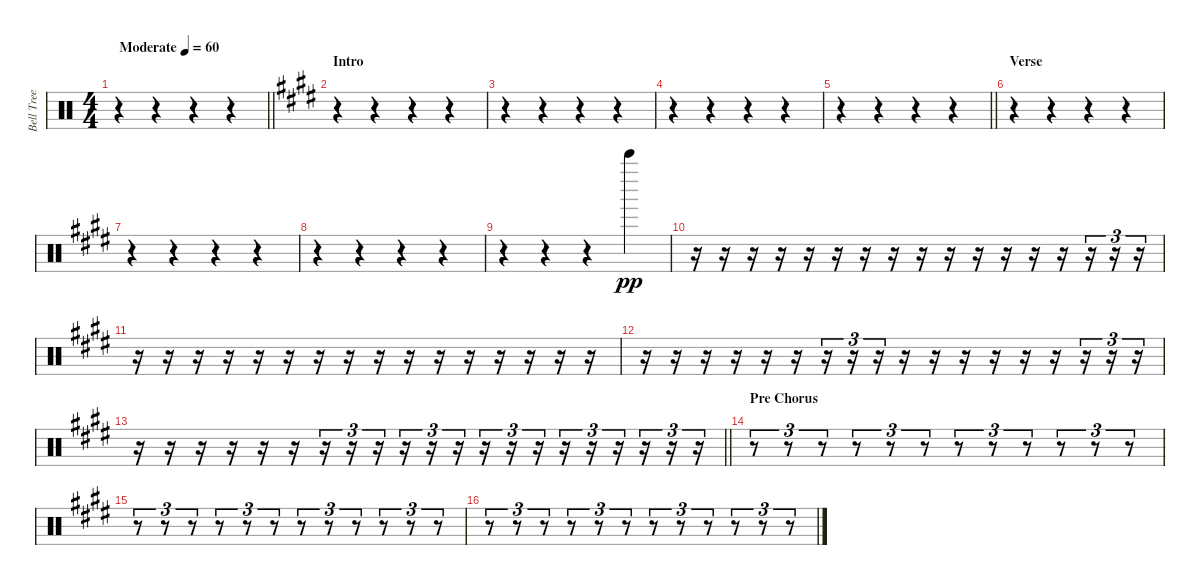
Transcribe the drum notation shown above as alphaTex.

\track ("Bell Tree" "Bell Tree") {instrument percussion}
\staff {score}
\articulation defaults
\ts (4 4)
\tempo (60 "Moderate")
\clef neutral
\barLineRight lightlight
\ks c
r.4{dy pp} r.4 r.4 r.4 |
\section ("" "Intro")
\ks e
r.4 r.4 r.4 r.4 |
r.4 r.4 r.4 r.4 |
r.4 r.4 r.4 r.4 |
\barLineRight lightlight
r.4 r.4 r.4 r.4 |
\section ("" "Verse")
r.4 r.4 r.4 r.4 |
r.4 r.4 r.4 r.4 |
r.4 r.4 r.4 r.4 |
r.4 r.4 r.4 "Bell Tree (hit)".4 |
r.16 r.16 r.16 r.16 r.16 r.16 r.16 r.16 r.16 r.16 r.16 r.16 r.16 r.16 r.16{tu (3 2)} r.16{tu (3 2)} r.16{tu (3 2)} |
r.16 r.16 r.16 r.16 r.16 r.16 r.16 r.16 r.16 r.16 r.16 r.16 r.16 r.16 r.16 r.16 |
r.16 r.16 r.16 r.16 r.16 r.16 r.16{tu (3 2)} r.16{tu (3 2)} r.16{tu (3 2)} r.16 r.16 r.16 r.16 r.16 r.16 r.16{tu (3 2)} r.16{tu (3 2)} r.16{tu (3 2)} |
\barLineRight lightlight
r.16 r.16 r.16 r.16 r.16 r.16 r.16{tu (3 2)} r.16{tu (3 2)} r.16{tu (3 2)} r.16{tu (3 2)} r.16{tu (3 2)} r.16{tu (3 2)} r.16{tu (3 2)} r.16{tu (3 2)} r.16{tu (3 2)} r.16{tu (3 2)} r.16{tu (3 2)} r.16{tu (3 2)} r.16{tu (3 2)} r.16{tu (3 2)} r.16{tu (3 2)} |
\section ("" "Pre Chorus")
r.8{tu (3 2)} r.8{tu (3 2)} r.8{tu (3 2)} r.8{tu (3 2)} r.8{tu (3 2)} r.8{tu (3 2)} r.8{tu (3 2)} r.8{tu (3 2)} r.8{tu (3 2)} r.8{tu (3 2)} r.8{tu (3 2)} r.8{tu (3 2)} |
r.8{tu (3 2)} r.8{tu (3 2)} r.8{tu (3 2)} r.8{tu (3 2)} r.8{tu (3 2)} r.8{tu (3 2)} r.8{tu (3 2)} r.8{tu (3 2)} r.8{tu (3 2)} r.8{tu (3 2)} r.8{tu (3 2)} r.8{tu (3 2)} |
r.8{tu (3 2)} r.8{tu (3 2)} r.8{tu (3 2)} r.8{tu (3 2)} r.8{tu (3 2)} r.8{tu (3 2)} r.8{tu (3 2)} r.8{tu (3 2)} r.8{tu (3 2)} r.8{tu (3 2)} r.8{tu (3 2)} r.8{tu (3 2)}
